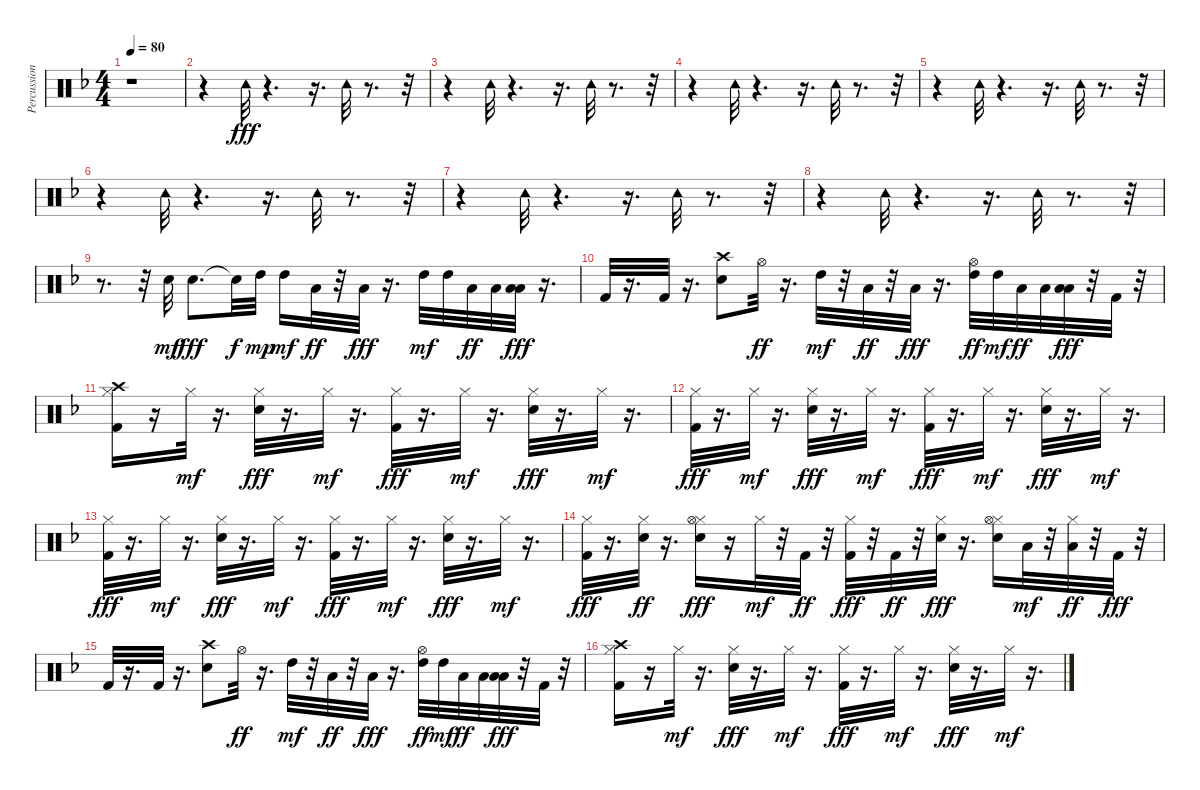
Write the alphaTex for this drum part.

\track ("Percussion" "Percussion") {instrument percussion}
\staff {score}
\articulation defaults
\ts (4 4)
\tempo 80
\clef neutral
\ks f
r.1{dy fff} |
r.4 "Tambourine (hit)".32 r.4{d} r.16{d} "Tambourine (hit)".32 r.8{d} r.32 |
r.4 "Tambourine (hit)".32 r.4{d} r.16{d} "Tambourine (hit)".32 r.8{d} r.32 |
r.4 "Tambourine (hit)".32 r.4{d} r.16{d} "Tambourine (hit)".32 r.8{d} r.32 |
r.4 "Tambourine (hit)".32 r.4{d} r.16{d} "Tambourine (hit)".32 r.8{d} r.32 |
r.4 "Tambourine (hit)".32 r.4{d} r.16{d} "Tambourine (hit)".32 r.8{d} r.32 |
r.4 "Tambourine (hit)".32 r.4{d} r.16{d} "Tambourine (hit)".32 r.8{d} r.32 |
r.4 "Tambourine (hit)".32 r.4{d} r.16{d} "Tambourine (hit)".32 r.8{d} r.32 |
r.8{d} r.32 "Snare (hit) 2".32{dy mf} "Snare (hit) 2".8{d dy fff} "Snare (hit)"{t}.32{dy f} "High Tom (hit)".32{dy mp} "High Tom (hit)".16{dy mf} "Low Tom (hit)".32{dy ff} r.32 "Low Floor Tom (hit)".32{dy fff} r.16{d} "High Tom (hit)".32{dy mf} "High Tom (hit)".32 "Low Tom (hit)".32{dy ff} "Low Tom (hit)".32 ("Low Floor Tom (hit)" "Low Floor Tom (hit)").32{dy fff} r.16{d} |
"Kick (hit) 2".32 r.16{d} "Kick (hit) 2".32 r.16{d} ("Crash high (hit)" "Snare (hit) 2").8 "Hi-Hat (open)".32{dy ff} r.16{d} "High Tom (hit)".32{dy mf} r.32 "Low Tom (hit)".32{dy ff} r.32 "Low Floor Tom (hit)".32{dy fff} r.16{d} ("High Tom (hit)" "Hi-Hat (open)").32{dy ff} "High Tom (hit)".32{dy mf} "Low Tom (hit)".32{dy ff} "Low Tom (hit)".32 ("Low Floor Tom (hit)" "Low Floor Tom (hit)").32{dy fff} r.32 "Kick (hit) 2".32 r.32 |
("Hi-Hat (closed)" "Crash high (hit)" "Kick (hit) 2").16 r.16 "Hi-Hat (closed)".32{dy mf} r.16{d} ("Hi-Hat (closed)" "Snare (hit) 2").32{dy fff} r.16{d} "Hi-Hat (closed)".32{dy mf} r.16{d} ("Hi-Hat (closed)" "Kick (hit) 2").32{dy fff} r.16{d} "Hi-Hat (closed)".32{dy mf} r.16{d} ("Hi-Hat (closed)" "Snare (hit) 2").32{dy fff} r.16{d} "Hi-Hat (closed)".32{dy mf} r.16{d} |
("Hi-Hat (closed)" "Kick (hit) 2").32{dy fff} r.16{d} "Hi-Hat (closed)".32{dy mf} r.16{d} ("Hi-Hat (closed)" "Snare (hit) 2").32{dy fff} r.16{d} "Hi-Hat (closed)".32{dy mf} r.16{d} ("Hi-Hat (closed)" "Kick (hit) 2").32{dy fff} r.16{d} "Hi-Hat (closed)".32{dy mf} r.16{d} ("Hi-Hat (closed)" "Snare (hit) 2").32{dy fff} r.16{d} "Hi-Hat (closed)".32{dy mf} r.16{d} |
("Hi-Hat (closed)" "Kick (hit) 2").32{dy fff} r.16{d} "Hi-Hat (closed)".32{dy mf} r.16{d} ("Hi-Hat (closed)" "Snare (hit) 2").32{dy fff} r.16{d} "Hi-Hat (closed)".32{dy mf} r.16{d} ("Hi-Hat (closed)" "Kick (hit) 2").32{dy fff} r.16{d} "Hi-Hat (closed)".32{dy mf} r.16{d} ("Hi-Hat (closed)" "Snare (hit) 2").32{dy fff} r.16{d} "Hi-Hat (closed)".32{dy mf} r.16{d} |
("Hi-Hat (closed)" "Kick (hit) 2").32{dy fff} r.16{d} ("Hi-Hat (closed)" "Snare (hit) 2").32{dy ff} r.16{d} ("Hi-Hat (closed)" "Hi-Hat (open)" "Snare (hit) 2").16{dy fff} r.16 "Hi-Hat (closed)".32{dy mf} r.32 "Kick (hit) 2".32{dy ff} r.32 ("Hi-Hat (closed)" "Kick (hit) 2").32{dy fff} r.32 "Kick (hit) 2".32{dy ff} r.32 ("Hi-Hat (closed)" "Snare (hit) 2").32{dy fff} r.16{d} ("Hi-Hat (closed)" "Hi-Hat (open)" "Snare (hit) 2").16 "Low Tom (hit)".32{dy mf} r.32 ("Hi-Hat (closed)" "Low Floor Tom (hit)").32{dy ff} r.32 "Kick (hit) 2".32{dy fff} r.32 |
"Kick (hit) 2".32 r.16{d} "Kick (hit) 2".32 r.16{d} ("Crash high (hit)" "Snare (hit) 2").8 "Hi-Hat (open)".32{dy ff} r.16{d} "High Tom (hit)".32{dy mf} r.32 "Low Tom (hit)".32{dy ff} r.32 "Low Floor Tom (hit)".32{dy fff} r.16{d} ("High Tom (hit)" "Hi-Hat (open)").32{dy ff} "High Tom (hit)".32{dy mf} "Low Tom (hit)".32{dy ff} "Low Tom (hit)".32 ("Low Floor Tom (hit)" "Low Floor Tom (hit)").32{dy fff} r.32 "Kick (hit) 2".32 r.32 |
("Hi-Hat (closed)" "Crash high (hit)" "Kick (hit) 2").16 r.16 "Hi-Hat (closed)".32{dy mf} r.16{d} ("Hi-Hat (closed)" "Snare (hit) 2").32{dy fff} r.16{d} "Hi-Hat (closed)".32{dy mf} r.16{d} ("Hi-Hat (closed)" "Kick (hit) 2").32{dy fff} r.16{d} "Hi-Hat (closed)".32{dy mf} r.16{d} ("Hi-Hat (closed)" "Snare (hit) 2").32{dy fff} r.16{d} "Hi-Hat (closed)".32{dy mf} r.16{d}
